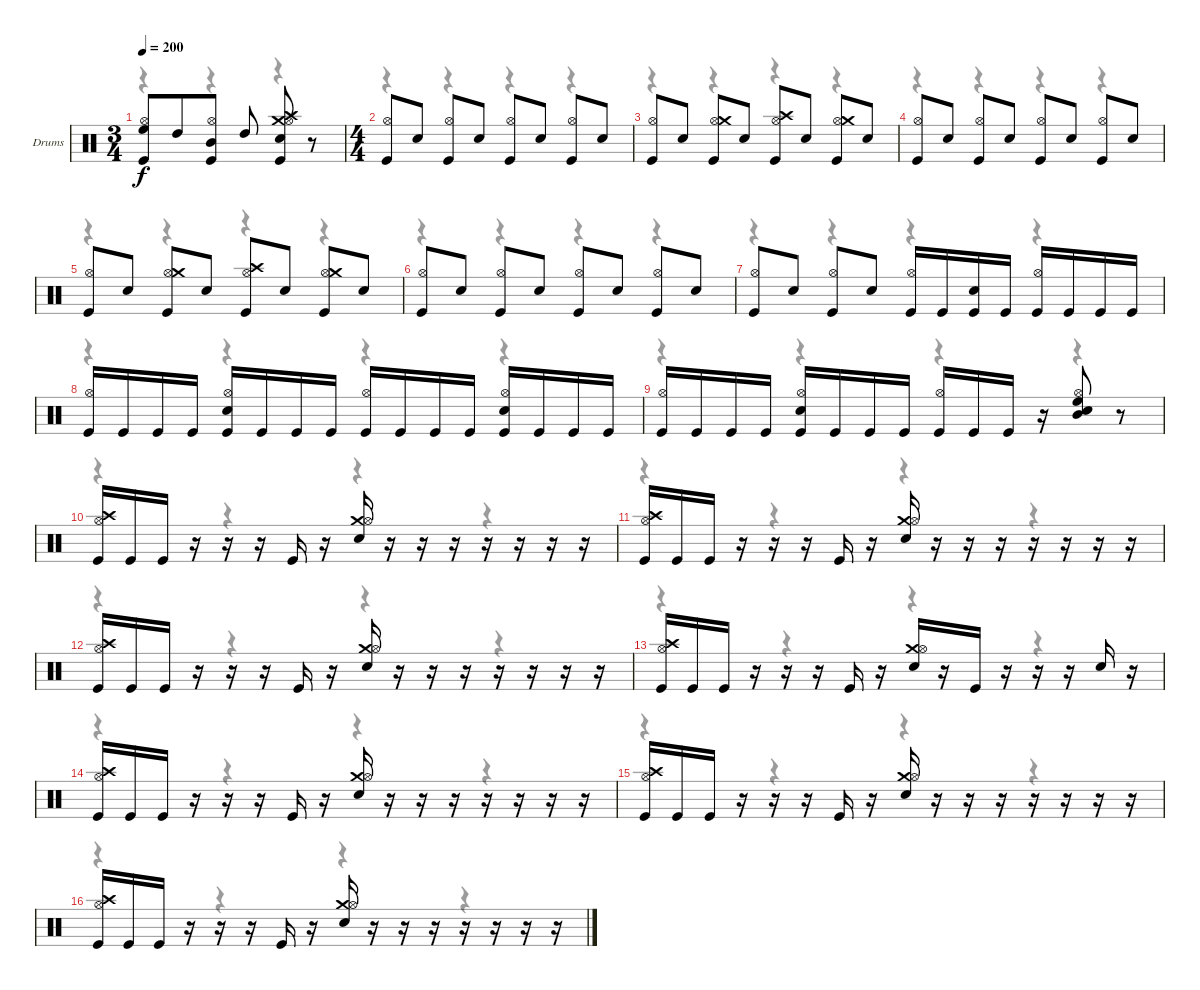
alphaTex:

\bracketExtendMode nobrackets
\firstSystemTrackNameOrientation horizontal
\otherSystemsTrackNameOrientation horizontal
\track ("Drumkit" "Drums") {instrument percussion}
\staff {score}
\articulation defaults
\voice
\ts (3 4)
\beaming (8 3 1 1 1)
\tempo 200
\clef neutral
\ks c
("Kick (hit)" "High Floor Tom (hit)" "Hi-Hat (open)").8{dy f} "High Tom (hit)".8 ("Kick (hit)" "Mid Tom (hit)" "Hi-Hat (open)").8 "High Tom (hit)".8 ("Kick (hit)" "Snare (hit) 2" "Crash medium (hit)" "Hi-Hat (open)" "Crash high (hit)").8 r.8 |
\ts (4 4)
\beaming (8 2 2 2 2)
("Hi-Hat (open)" "Kick (hit)").8 "Snare (hit) 2".8 ("Hi-Hat (open)" "Kick (hit)").8 "Snare (hit) 2".8 ("Hi-Hat (open)" "Kick (hit)").8 "Snare (hit) 2".8 ("Hi-Hat (open)" "Kick (hit)").8 "Snare (hit) 2".8 |
("Kick (hit)" "Hi-Hat (open)").8 "Snare (hit) 2".8 ("Kick (hit)" "Hi-Hat (open)" "Crash medium (hit)").8 "Snare (hit) 2".8 ("Kick (hit)" "Hi-Hat (open)" "Crash high (hit)").8 "Snare (hit) 2".8 ("Kick (hit)" "Hi-Hat (open)" "Crash medium (hit)").8 "Snare (hit) 2".8 |
("Hi-Hat (open)" "Kick (hit)").8 "Snare (hit) 2".8 ("Hi-Hat (open)" "Kick (hit)").8 "Snare (hit) 2".8 ("Hi-Hat (open)" "Kick (hit)").8 "Snare (hit) 2".8 ("Hi-Hat (open)" "Kick (hit)").8 "Snare (hit) 2".8 |
("Kick (hit)" "Hi-Hat (open)").8 "Snare (hit) 2".8 ("Kick (hit)" "Hi-Hat (open)" "Crash medium (hit)").8 "Snare (hit) 2".8 ("Kick (hit)" "Hi-Hat (open)" "Crash high (hit)").8 "Snare (hit) 2".8 ("Kick (hit)" "Hi-Hat (open)" "Crash medium (hit)").8 "Snare (hit) 2".8 |
("Hi-Hat (open)" "Kick (hit)").8 "Snare (hit) 2".8 ("Hi-Hat (open)" "Kick (hit)").8 "Snare (hit) 2".8 ("Hi-Hat (open)" "Kick (hit)").8 "Snare (hit) 2".8 ("Hi-Hat (open)" "Kick (hit)").8 "Snare (hit) 2".8 |
("Kick (hit)" "Hi-Hat (open)").8 "Snare (hit) 2".8 ("Kick (hit)" "Hi-Hat (open)").8 "Snare (hit) 2".8 ("Kick (hit)" "Hi-Hat (open)").16 "Kick (hit)".16 ("Kick (hit)" "Snare (hit) 2").16 "Kick (hit)".16 ("Kick (hit)" "Hi-Hat (open)").16 "Kick (hit)".16 "Kick (hit)".16 "Kick (hit)".16 |
("Kick (hit)" "Hi-Hat (open)").16 "Kick (hit)".16 "Kick (hit)".16 "Kick (hit)".16 ("Kick (hit)" "Hi-Hat (open)" "Snare (hit) 2").16 "Kick (hit)".16 "Kick (hit)".16 "Kick (hit)".16 ("Kick (hit)" "Hi-Hat (open)").16 "Kick (hit)".16 "Kick (hit)".16 "Kick (hit)".16 ("Kick (hit)" "Hi-Hat (open)" "Snare (hit) 2").16 "Kick (hit)".16 "Kick (hit)".16 "Kick (hit)".16 |
("Kick (hit)" "Hi-Hat (open)").16 "Kick (hit)".16 "Kick (hit)".16 "Kick (hit)".16 ("Kick (hit)" "Snare (hit) 2" "Hi-Hat (open)").16 "Kick (hit)".16 "Kick (hit)".16 "Kick (hit)".16 ("Kick (hit)" "Hi-Hat (open)").16 "Kick (hit)".16 "Kick (hit)".16 r.16 ("High Floor Tom (hit)" "Snare (hit) 2" "Hi-Hat (open)" "Mid Tom (hit)").8 r.8 |
("Kick (hit)" "Crash high (hit)" "Hi-Hat (open)").16 "Kick (hit)".16 "Kick (hit)".16 r.16 r.16 r.16 "Kick (hit)".16 r.16 ("Crash medium (hit)" "Snare (hit) 2" "Hi-Hat (open)").16 r.16 r.16 r.16 r.16 r.16 r.16 r.16 |
("Kick (hit)" "Crash high (hit)" "Hi-Hat (open)").16 "Kick (hit)".16 "Kick (hit)".16 r.16 r.16 r.16 "Kick (hit)".16 r.16 ("Crash medium (hit)" "Snare (hit) 2" "Hi-Hat (open)").16 r.16 r.16 r.16 r.16 r.16 r.16 r.16 |
("Kick (hit)" "Crash high (hit)" "Hi-Hat (open)").16 "Kick (hit)".16 "Kick (hit)".16 r.16 r.16 r.16 "Kick (hit)".16 r.16 ("Crash medium (hit)" "Snare (hit) 2" "Hi-Hat (open)").16 r.16 r.16 r.16 r.16 r.16 r.16 r.16 |
("Kick (hit)" "Crash high (hit)" "Hi-Hat (open)").16 "Kick (hit)".16 "Kick (hit)".16 r.16 r.16 r.16 "Kick (hit)".16 r.16 ("Crash medium (hit)" "Snare (hit) 2" "Hi-Hat (open)").16 r.16 "Kick (hit)".16 r.16 r.16 r.16 "Snare (hit) 2".16 r.16 |
("Kick (hit)" "Crash high (hit)" "Hi-Hat (open)").16 "Kick (hit)".16 "Kick (hit)".16 r.16 r.16 r.16 "Kick (hit)".16 r.16 ("Crash medium (hit)" "Snare (hit) 2" "Hi-Hat (open)").16 r.16 r.16 r.16 r.16 r.16 r.16 r.16 |
("Kick (hit)" "Crash high (hit)" "Hi-Hat (open)").16 "Kick (hit)".16 "Kick (hit)".16 r.16 r.16 r.16 "Kick (hit)".16 r.16 ("Crash medium (hit)" "Snare (hit) 2" "Hi-Hat (open)").16 r.16 r.16 r.16 r.16 r.16 r.16 r.16 |
("Kick (hit)" "Crash high (hit)" "Hi-Hat (open)").16 "Kick (hit)".16 "Kick (hit)".16 r.16 r.16 r.16 "Kick (hit)".16 r.16 ("Crash medium (hit)" "Snare (hit) 2" "Hi-Hat (open)").16 r.16 r.16 r.16 r.16 r.16 r.16 r.16
\voice
\clef neutral
\ottava regular
\simile none
\ks c
r.4{dy mf} r.4 r.4 |
r.4 r.4 r.4 r.4 |
r.4 r.4 r.4 r.4 |
r.4 r.4 r.4 r.4 |
r.4 r.4 r.4 r.4 |
r.4 r.4 r.4 r.4 |
r.4 r.4 r.4 r.4 |
r.4 r.4 r.4 r.4 |
r.4 r.4 r.4 r.4 |
r.4 r.4 r.4 r.4 |
r.4 r.4 r.4 r.4 |
r.4 r.4 r.4 r.4 |
r.4 r.4 r.4 r.4 |
r.4 r.4 r.4 r.4 |
r.4 r.4 r.4 r.4 |
r.4 r.4 r.4 r.4
